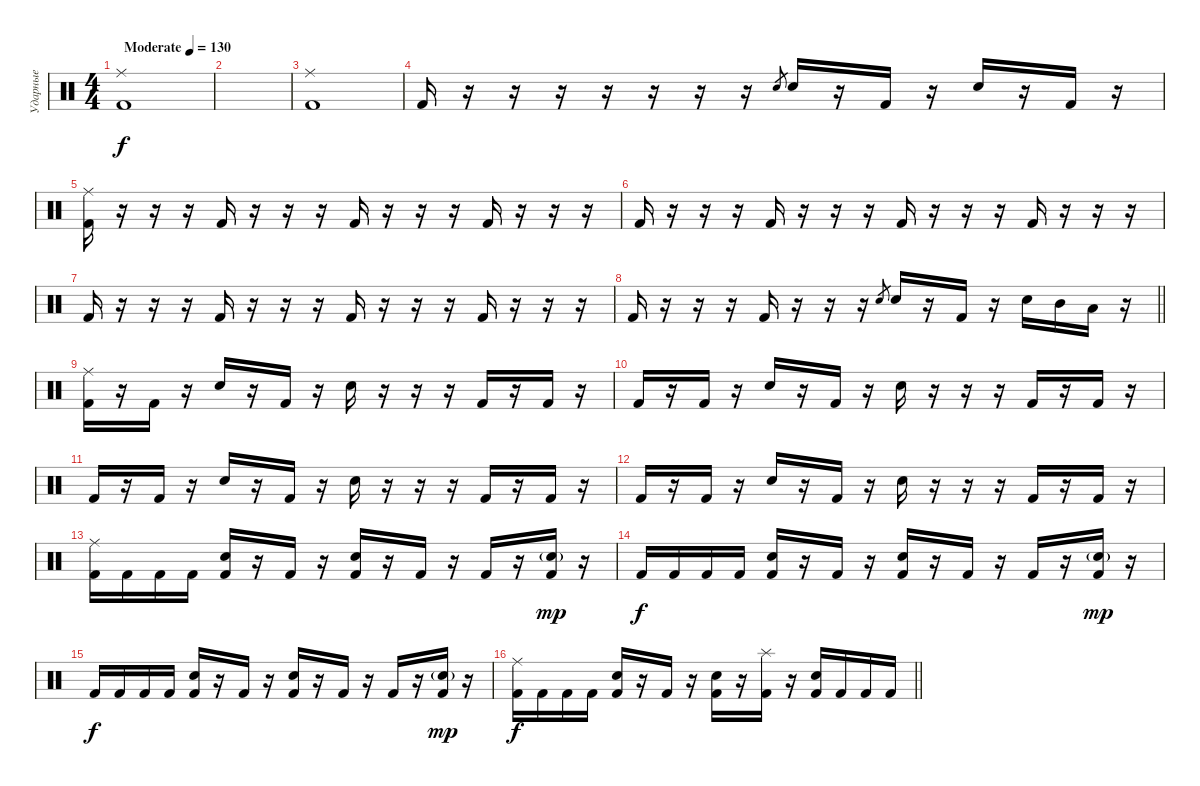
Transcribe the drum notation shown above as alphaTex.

\track ("Ударные" "Ударные") {instrument percussion}
\staff {score}
\articulation defaults
\ts (4 4)
\tempo (130 "Moderate")
\clef neutral
\ks c
("Ride (middle)" "Kick (hit) 2").1{dy f} |
|
("Ride (middle)" "Kick (hit) 2").1 |
"Kick (hit) 2".16 r.16 r.16 r.16 r.16 r.16 r.16 r.16 "Snare (hit) 2".8{gr} "Snare (hit) 2".16 r.16 "Kick (hit) 2".16 r.16 "Snare (hit) 2".16 r.16 "Kick (hit) 2".16 r.16 |
("Ride (middle)" "Kick (hit) 2").16 r.16 r.16 r.16 "Kick (hit) 2".16 r.16 r.16 r.16 "Kick (hit) 2".16 r.16 r.16 r.16 "Kick (hit) 2".16 r.16 r.16 r.16 |
"Kick (hit) 2".16 r.16 r.16 r.16 "Kick (hit) 2".16 r.16 r.16 r.16 "Kick (hit) 2".16 r.16 r.16 r.16 "Kick (hit) 2".16 r.16 r.16 r.16 |
"Kick (hit) 2".16 r.16 r.16 r.16 "Kick (hit) 2".16 r.16 r.16 r.16 "Kick (hit) 2".16 r.16 r.16 r.16 "Kick (hit) 2".16 r.16 r.16 r.16 |
\barLineRight lightlight "Kick (hit) 2".16
r.16 r.16 r.16 "Kick (hit) 2".16 r.16 r.16 r.16 "Snare (hit) 2".8{gr} "Snare (hit) 2".16 r.16 "Kick (hit) 2".16 r.16 "Snare (hit) 2".16 "Mid Tom (hit)".16 "Low Tom (hit)".16 r.16 |
("Ride (middle)" "Kick (hit) 2").16 r.16 "Kick (hit) 2".16 r.16 "Snare (hit) 2".16 r.16 "Kick (hit) 2".16 r.16 "Snare (hit) 2".16 r.16 r.16 r.16 "Kick (hit) 2".16 r.16 "Kick (hit) 2".16 r.16 |
"Kick (hit) 2".16 r.16 "Kick (hit) 2".16 r.16 "Snare (hit) 2".16 r.16 "Kick (hit) 2".16 r.16 "Snare (hit) 2".16 r.16 r.16 r.16 "Kick (hit) 2".16 r.16 "Kick (hit) 2".16 r.16 |
"Kick (hit) 2".16 r.16 "Kick (hit) 2".16 r.16 "Snare (hit) 2".16 r.16 "Kick (hit) 2".16 r.16 "Snare (hit) 2".16 r.16 r.16 r.16 "Kick (hit) 2".16 r.16 "Kick (hit) 2".16 r.16 |
"Kick (hit) 2".16 r.16 "Kick (hit) 2".16 r.16 "Snare (hit) 2".16 r.16 "Kick (hit) 2".16 r.16 "Snare (hit) 2".16 r.16 r.16 r.16 "Kick (hit) 2".16 r.16 "Kick (hit) 2".16 r.16 |
("Ride (middle)" "Kick (hit) 2").16 "Kick (hit) 2".16 "Kick (hit) 2".16 "Kick (hit) 2".16 ("Snare (hit) 2" "Kick (hit) 2").16 r.16 "Kick (hit) 2".16 r.16 ("Snare (hit) 2" "Kick (hit) 2").16 r.16 "Kick (hit) 2".16 r.16 "Kick (hit) 2".16 r.16 ("Snare (hit) 2"{g} "Kick (hit) 2").16{dy mp} r.16 |
"Kick (hit) 2".16{dy f} "Kick (hit) 2".16 "Kick (hit) 2".16 "Kick (hit) 2".16 ("Snare (hit) 2" "Kick (hit) 2").16 r.16 "Kick (hit) 2".16 r.16 ("Snare (hit) 2" "Kick (hit) 2").16 r.16 "Kick (hit) 2".16 r.16 "Kick (hit) 2".16 r.16 ("Snare (hit) 2"{g} "Kick (hit) 2").16{dy mp} r.16 |
"Kick (hit) 2".16{dy f} "Kick (hit) 2".16 "Kick (hit) 2".16 "Kick (hit) 2".16 ("Snare (hit) 2" "Kick (hit) 2").16 r.16 "Kick (hit) 2".16 r.16 ("Snare (hit) 2" "Kick (hit) 2").16 r.16 "Kick (hit) 2".16 r.16 "Kick (hit) 2".16 r.16 ("Snare (hit) 2"{g} "Kick (hit) 2").16{dy mp} r.16 |
\barLineRight lightlight
("Ride (middle)" "Kick (hit) 2").16{dy f} "Kick (hit) 2".16 "Kick (hit) 2".16 "Kick (hit) 2".16 ("Snare (hit) 2" "Kick (hit) 2").16 r.16 "Kick (hit) 2".16 r.16 ("Snare (hit) 2" "Kick (hit) 2").16 r.16 ("Splash (hit)" "Kick (hit) 2").16 r.16 ("Snare (hit) 2" "Kick (hit) 2").16 "Kick (hit) 2".16 "Kick (hit) 2".16 "Kick (hit) 2".16
